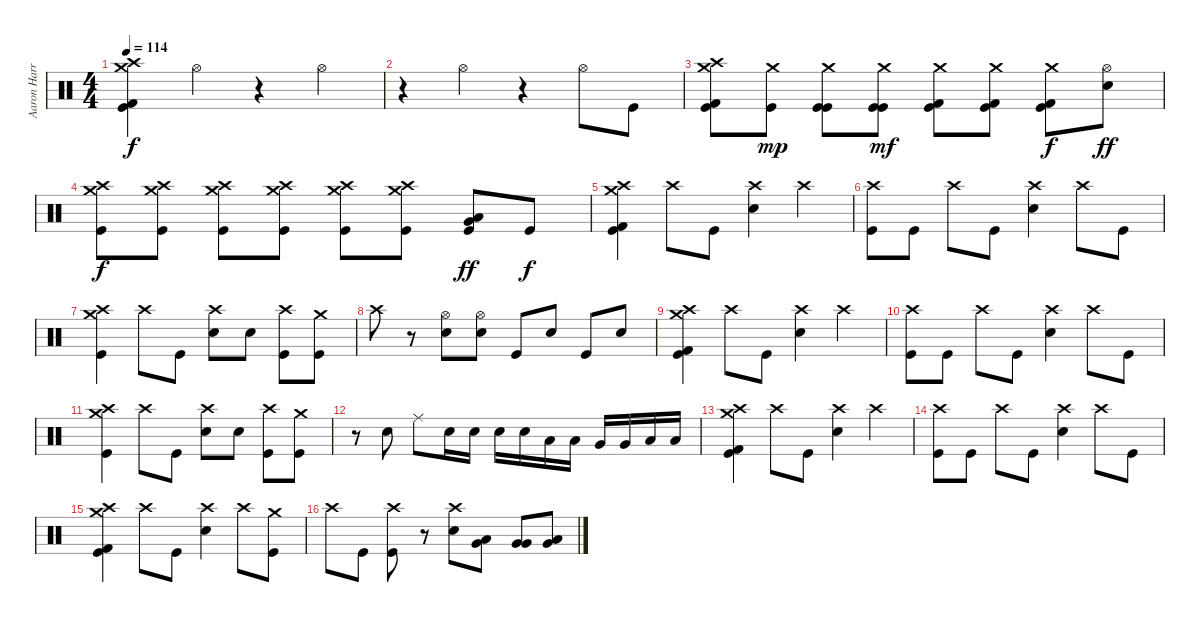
\track ("Aaron Harris" "Aaron Harr") {instrument percussion}
\staff {score}
\articulation defaults
\ts (4 4)
\tempo 114
\clef neutral
\ks c
("Crash medium (hit)" "Crash high (hit)" "Kick (hit) 2" "Kick (hit)").4{dy f} "Hi-Hat (open)".4 r.4 "Hi-Hat (open)".4 |
r.4 "Hi-Hat (open)".4 r.4 "Hi-Hat (open)".8 "Kick (hit)".8 |
("Crash medium (hit)" "Crash high (hit)" "Kick (hit) 2" "Kick (hit)").8 ("Crash medium (hit)" "Kick (hit)").8{dy mp} ("Crash medium (hit)" "Kick (hit)" "Kick (hit)").8 ("Crash medium (hit)" "Kick (hit)" "Kick (hit)").8{dy mf} ("Crash medium (hit)" "Kick (hit) 2" "Kick (hit)").8 ("Crash medium (hit)" "Kick (hit) 2" "Kick (hit)").8 ("Crash medium (hit)" "Kick (hit) 2" "Kick (hit)").8{dy f} ("Hi-Hat (open)" "Electric Snare (hit)").8{dy ff} |
("Crash medium (hit)" "Crash high (hit)" "Kick (hit)").8{dy f} ("Crash medium (hit)" "Crash high (hit)" "Kick (hit)").8 ("Crash medium (hit)" "Crash high (hit)" "Kick (hit)").8 ("Crash medium (hit)" "Crash high (hit)" "Kick (hit)").8 ("Crash medium (hit)" "Crash high (hit)" "Kick (hit)").8 ("Crash medium (hit)" "Crash high (hit)" "Kick (hit)").8 ("Very Low Tom (hit)" "Low Floor Tom (hit)" "Kick (hit)").8{dy ff} "Kick (hit)".8{dy f} |
("Crash medium (hit)" "Crash high (hit)" "Kick (hit) 2" "Kick (hit)").4 "Crash high (hit)".8 "Kick (hit)".8 ("Crash high (hit)" "Electric Snare (hit)").4 "Crash high (hit)".4 |
("Crash high (hit)" "Kick (hit)").8 "Kick (hit)".8 "Crash high (hit)".8 "Kick (hit)".8 ("Crash high (hit)" "Electric Snare (hit)").4 "Crash high (hit)".8 "Kick (hit)".8 |
("Crash medium (hit)" "Crash high (hit)" "Kick (hit)").4 "Crash high (hit)".8 "Kick (hit)".8 ("Crash high (hit)" "Electric Snare (hit)").8 "Electric Snare (hit)".8 ("Crash high (hit)" "Kick (hit)").8 ("Crash medium (hit)" "Kick (hit)").8 |
"Crash high (hit)".8 r.8 ("Hi-Hat (open)" "Electric Snare (hit)").8 ("Hi-Hat (open)" "Electric Snare (hit)").8 "Kick (hit)".8 "Electric Snare (hit)".8 "Kick (hit)".8 "Electric Snare (hit)".8 |
("Crash medium (hit)" "Crash high (hit)" "Kick (hit) 2" "Kick (hit)").4 "Crash high (hit)".8 "Kick (hit)".8 ("Crash high (hit)" "Electric Snare (hit)").4 "Crash high (hit)".4 |
("Crash high (hit)" "Kick (hit)").8 "Kick (hit)".8 "Crash high (hit)".8 "Kick (hit)".8 ("Crash high (hit)" "Electric Snare (hit)").4 "Crash high (hit)".8 "Kick (hit)".8 |
("Crash medium (hit)" "Crash high (hit)" "Kick (hit)").4 "Crash high (hit)".8 "Kick (hit)".8 ("Crash high (hit)" "Electric Snare (hit)").8 "Electric Snare (hit)".8 ("Crash high (hit)" "Kick (hit)").8 ("Crash medium (hit)" "Kick (hit)").8 |
r.8 "Electric Snare (hit)".8 "Ride (middle)".8 "Electric Snare (hit)".16 "Electric Snare (hit)".16 "Electric Snare (hit)".16 "Electric Snare (hit)".16 "Low Tom (hit)".16 "Low Tom (hit)".16 "Very Low Tom (hit)".16 "Very Low Tom (hit)".16 "Low Floor Tom (hit)".16 "Low Floor Tom (hit)".16 |
("Crash medium (hit)" "Crash high (hit)" "Kick (hit) 2" "Kick (hit)").4 "Crash high (hit)".8 "Kick (hit)".8 ("Crash high (hit)" "Electric Snare (hit)").4 "Crash high (hit)".4 |
("Crash high (hit)" "Kick (hit)").8 "Kick (hit)".8 "Crash high (hit)".8 "Kick (hit)".8 ("Crash high (hit)" "Electric Snare (hit)").4 "Crash high (hit)".8 "Kick (hit)".8 |
("Crash medium (hit)" "Crash high (hit)" "Kick (hit) 2" "Kick (hit)").4 "Crash high (hit)".8 "Kick (hit)".8 ("Crash high (hit)" "Electric Snare (hit)").4 "Crash high (hit)".8 ("Crash medium (hit)" "Kick (hit)").8 |
"Crash high (hit)".8 "Kick (hit)".8 ("Crash high (hit)" "Kick (hit)").8 r.8 ("Crash high (hit)" "Electric Snare (hit)").8 ("Low Tom (hit)" "Very Low Tom (hit)").8 ("Very Low Tom (hit)" "Very Low Tom (hit)").8 ("Very Low Tom (hit)" "Low Floor Tom (hit)").8
